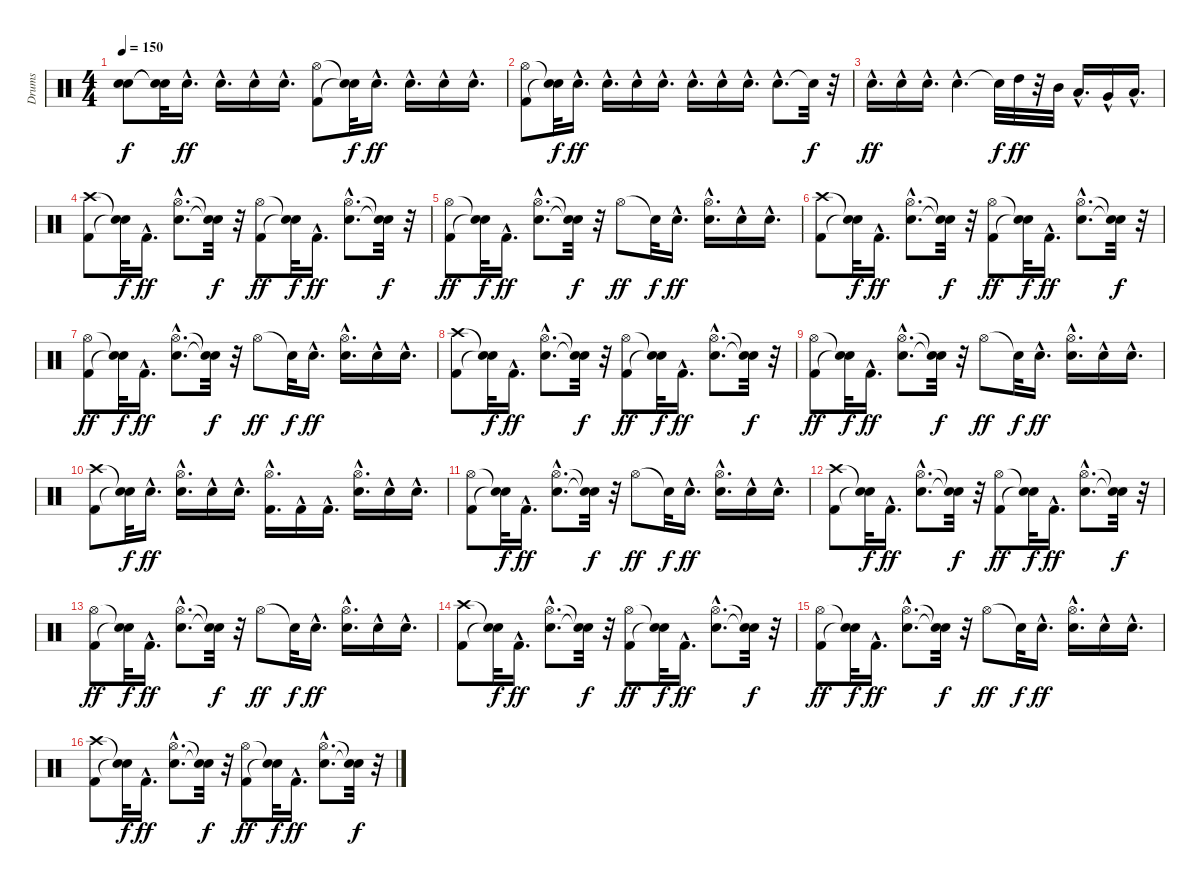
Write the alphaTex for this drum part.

\track ("Drums" "Drums") {instrument percussion}
\staff {score}
\articulation defaults
\ts (4 4)
\tempo 150
\clef neutral
\ks c
("Snare (hit)"{t} "Snare (hit)"{t}).8{dy f} ("Snare (hit)"{t} "Snare (hit)"{t}).32 "Snare (hit) 2"{hac}.16{d dy ff} "Snare (hit) 2"{hac}.16{d} "Snare (hit) 2"{hac}.16 "Snare (hit) 2"{hac}.16{d} ("Kick (hit) 2" "Hi-Hat (open)").8 ("Snare (hit)"{t} "Snare (hit)"{t}).32{dy f} "Snare (hit) 2"{hac}.16{d dy ff} "Snare (hit) 2"{hac}.16{d} "Snare (hit) 2"{hac}.16 "Snare (hit) 2"{hac}.16{d} |
("Kick (hit) 2" "Hi-Hat (open)").8 ("Snare (hit)"{t} "Snare (hit)"{t}).32{dy f} "Snare (hit) 2"{hac}.16{d dy ff} "Snare (hit) 2"{hac}.16{d} "Snare (hit) 2"{hac}.16 "Snare (hit) 2"{hac}.16{d} "Snare (hit) 2"{hac}.16{d} "Snare (hit) 2"{hac}.16 "Snare (hit) 2"{hac}.16{d} "Snare (hit) 2"{hac}.8{d} "Snare (hit)"{t}.32{dy f} r.32 |
"Snare (hit) 2"{hac}.16{d dy ff} "Snare (hit) 2"{hac}.16 "Snare (hit) 2"{hac}.16{d} "Snare (hit) 2"{hac}.4{d} "Snare (hit)"{t}.32{dy f} "High Tom (hit)".32{dy ff} r.32 "Mid Tom (hit)".32 "Low Tom (hit)"{hac}.16{d} "Very Low Tom (hit)"{hac}.16 "Low Floor Tom (hit)"{hac}.16{d} |
("Kick (hit) 2" "Crash high (hit)").8 ("Snare (hit)"{t} "Snare (hit)"{t}).32{dy f} "Kick (hit) 2"{hac}.16{d dy ff} ("Snare (hit) 2"{hac} "Hi-Hat (open)"{hac}).8{d} ("Snare (hit)"{t} "Snare (hit)"{t}).32{dy f} r.32 ("Kick (hit) 2" "Hi-Hat (open)").8{dy ff} ("Snare (hit)"{t} "Snare (hit)"{t}).32{dy f} "Kick (hit) 2"{hac}.16{d dy ff} ("Snare (hit) 2"{hac} "Hi-Hat (open)"{hac}).8{d} ("Snare (hit)"{t} "Snare (hit)"{t}).32{dy f} r.32 |
("Kick (hit) 2" "Hi-Hat (open)").8{dy ff} ("Snare (hit)"{t} "Snare (hit)"{t}).32{dy f} "Kick (hit) 2"{hac}.16{d dy ff} ("Snare (hit) 2"{hac} "Hi-Hat (open)"{hac}).8{d} ("Snare (hit)"{t} "Snare (hit)"{t}).32{dy f} r.32 "Hi-Hat (open)".8{dy ff} "Snare (hit)"{t}.32{dy f} "Snare (hit) 2"{hac}.16{d dy ff} ("Snare (hit) 2"{hac} "Hi-Hat (open)"{hac}).16{d} "Snare (hit) 2"{hac}.16 "Snare (hit) 2"{hac}.16{d} |
("Kick (hit) 2" "Crash high (hit)").8 ("Snare (hit)"{t} "Snare (hit)"{t}).32{dy f} "Kick (hit) 2"{hac}.16{d dy ff} ("Snare (hit) 2"{hac} "Hi-Hat (open)"{hac}).8{d} ("Snare (hit)"{t} "Snare (hit)"{t}).32{dy f} r.32 ("Kick (hit) 2" "Hi-Hat (open)").8{dy ff} ("Snare (hit)"{t} "Snare (hit)"{t}).32{dy f} "Kick (hit) 2"{hac}.16{d dy ff} ("Snare (hit) 2"{hac} "Hi-Hat (open)"{hac}).8{d} ("Snare (hit)"{t} "Snare (hit)"{t}).32{dy f} r.32 |
("Kick (hit) 2" "Hi-Hat (open)").8{dy ff} ("Snare (hit)"{t} "Snare (hit)"{t}).32{dy f} "Kick (hit) 2"{hac}.16{d dy ff} ("Snare (hit) 2"{hac} "Hi-Hat (open)"{hac}).8{d} ("Snare (hit)"{t} "Snare (hit)"{t}).32{dy f} r.32 "Hi-Hat (open)".8{dy ff} "Snare (hit)"{t}.32{dy f} "Snare (hit) 2"{hac}.16{d dy ff} ("Snare (hit) 2"{hac} "Hi-Hat (open)"{hac}).16{d} "Snare (hit) 2"{hac}.16 "Snare (hit) 2"{hac}.16{d} |
("Kick (hit) 2" "Crash high (hit)").8 ("Snare (hit)"{t} "Snare (hit)"{t}).32{dy f} "Kick (hit) 2"{hac}.16{d dy ff} ("Snare (hit) 2"{hac} "Hi-Hat (open)"{hac}).8{d} ("Snare (hit)"{t} "Snare (hit)"{t}).32{dy f} r.32 ("Kick (hit) 2" "Hi-Hat (open)").8{dy ff} ("Snare (hit)"{t} "Snare (hit)"{t}).32{dy f} "Kick (hit) 2"{hac}.16{d dy ff} ("Snare (hit) 2"{hac} "Hi-Hat (open)"{hac}).8{d} ("Snare (hit)"{t} "Snare (hit)"{t}).32{dy f} r.32 |
("Kick (hit) 2" "Hi-Hat (open)").8{dy ff} ("Snare (hit)"{t} "Snare (hit)"{t}).32{dy f} "Kick (hit) 2"{hac}.16{d dy ff} ("Snare (hit) 2"{hac} "Hi-Hat (open)"{hac}).8{d} ("Snare (hit)"{t} "Snare (hit)"{t}).32{dy f} r.32 "Hi-Hat (open)".8{dy ff} "Snare (hit)"{t}.32{dy f} "Snare (hit) 2"{hac}.16{d dy ff} ("Snare (hit) 2"{hac} "Hi-Hat (open)"{hac}).16{d} "Snare (hit) 2"{hac}.16 "Snare (hit) 2"{hac}.16{d} |
("Kick (hit) 2" "Crash high (hit)").8 ("Snare (hit)"{t} "Snare (hit)"{t}).32{dy f} "Snare (hit) 2"{hac}.16{d dy ff} ("Snare (hit) 2"{hac} "Hi-Hat (open)"{hac}).16{d} "Snare (hit) 2"{hac}.16 "Snare (hit) 2"{hac}.16{d} ("Kick (hit) 2"{hac} "Hi-Hat (open)"{hac}).16{d} "Kick (hit) 2"{hac}.16 "Kick (hit) 2"{hac}.16{d} ("Snare (hit) 2"{hac} "Hi-Hat (open)"{hac}).16{d} "Snare (hit) 2"{hac}.16 "Snare (hit) 2"{hac}.16{d} |
("Kick (hit) 2" "Hi-Hat (open)").8 ("Snare (hit)"{t} "Snare (hit)"{t}).32{dy f} "Kick (hit) 2"{hac}.16{d dy ff} ("Snare (hit) 2"{hac} "Hi-Hat (open)"{hac}).8{d} ("Snare (hit)"{t} "Snare (hit)"{t}).32{dy f} r.32 "Hi-Hat (open)".8{dy ff} "Snare (hit)"{t}.32{dy f} "Snare (hit) 2"{hac}.16{d dy ff} ("Snare (hit) 2"{hac} "Hi-Hat (open)"{hac}).16{d} "Snare (hit) 2"{hac}.16 "Snare (hit) 2"{hac}.16{d} |
("Kick (hit) 2" "Crash high (hit)").8 ("Snare (hit)"{t} "Snare (hit)"{t}).32{dy f} "Kick (hit) 2"{hac}.16{d dy ff} ("Snare (hit) 2"{hac} "Hi-Hat (open)"{hac}).8{d} ("Snare (hit)"{t} "Snare (hit)"{t}).32{dy f} r.32 ("Kick (hit) 2" "Hi-Hat (open)").8{dy ff} ("Snare (hit)"{t} "Snare (hit)"{t}).32{dy f} "Kick (hit) 2"{hac}.16{d dy ff} ("Snare (hit) 2"{hac} "Hi-Hat (open)"{hac}).8{d} ("Snare (hit)"{t} "Snare (hit)"{t}).32{dy f} r.32 |
("Kick (hit) 2" "Hi-Hat (open)").8{dy ff} ("Snare (hit)"{t} "Snare (hit)"{t}).32{dy f} "Kick (hit) 2"{hac}.16{d dy ff} ("Snare (hit) 2"{hac} "Hi-Hat (open)"{hac}).8{d} ("Snare (hit)"{t} "Snare (hit)"{t}).32{dy f} r.32 "Hi-Hat (open)".8{dy ff} "Snare (hit)"{t}.32{dy f} "Snare (hit) 2"{hac}.16{d dy ff} ("Snare (hit) 2"{hac} "Hi-Hat (open)"{hac}).16{d} "Snare (hit) 2"{hac}.16 "Snare (hit) 2"{hac}.16{d} |
("Kick (hit) 2" "Crash high (hit)").8 ("Snare (hit)"{t} "Snare (hit)"{t}).32{dy f} "Kick (hit) 2"{hac}.16{d dy ff} ("Snare (hit) 2"{hac} "Hi-Hat (open)"{hac}).8{d} ("Snare (hit)"{t} "Snare (hit)"{t}).32{dy f} r.32 ("Kick (hit) 2" "Hi-Hat (open)").8{dy ff} ("Snare (hit)"{t} "Snare (hit)"{t}).32{dy f} "Kick (hit) 2"{hac}.16{d dy ff} ("Snare (hit) 2"{hac} "Hi-Hat (open)"{hac}).8{d} ("Snare (hit)"{t} "Snare (hit)"{t}).32{dy f} r.32 |
("Kick (hit) 2" "Hi-Hat (open)").8{dy ff} ("Snare (hit)"{t} "Snare (hit)"{t}).32{dy f} "Kick (hit) 2"{hac}.16{d dy ff} ("Snare (hit) 2"{hac} "Hi-Hat (open)"{hac}).8{d} ("Snare (hit)"{t} "Snare (hit)"{t}).32{dy f} r.32 "Hi-Hat (open)".8{dy ff} "Snare (hit)"{t}.32{dy f} "Snare (hit) 2"{hac}.16{d dy ff} ("Snare (hit) 2"{hac} "Hi-Hat (open)"{hac}).16{d} "Snare (hit) 2"{hac}.16 "Snare (hit) 2"{hac}.16{d} |
("Kick (hit) 2" "Crash high (hit)").8 ("Snare (hit)"{t} "Snare (hit)"{t}).32{dy f} "Kick (hit) 2"{hac}.16{d dy ff} ("Snare (hit) 2"{hac} "Hi-Hat (open)"{hac}).8{d} ("Snare (hit)"{t} "Snare (hit)"{t}).32{dy f} r.32 ("Kick (hit) 2" "Hi-Hat (open)").8{dy ff} ("Snare (hit)"{t} "Snare (hit)"{t}).32{dy f} "Kick (hit) 2"{hac}.16{d dy ff} ("Snare (hit) 2"{hac} "Hi-Hat (open)"{hac}).8{d} ("Snare (hit)"{t} "Snare (hit)"{t}).32{dy f} r.32
